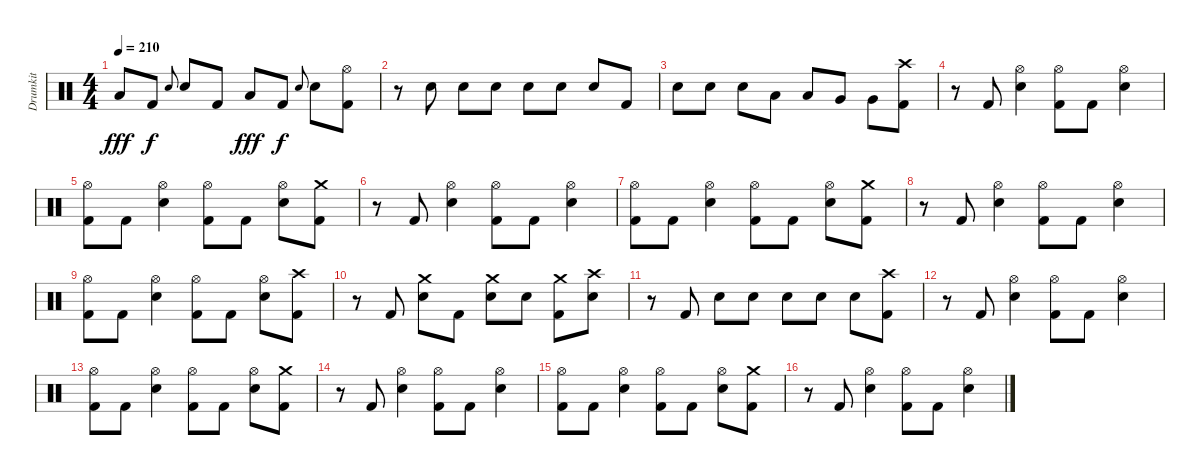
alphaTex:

\track ("Drumkit" "Drumkit") {instrument percussion}
\staff {score}
\articulation defaults
\ts (4 4)
\tempo 210
\clef neutral
\ks c "Low Floor Tom (hit)".8{dy fff} "Kick (hit) 2".8{dy f} "Electric Snare (hit)".8{gr onbeat} "Electric Snare (hit)".8 "Kick (hit) 2".8 "Low Floor Tom (hit)".8{dy fff} "Kick (hit) 2".8{dy f} "Electric Snare (hit)".8{gr onbeat} "Electric Snare (hit)".8
("Hi-Hat (open)" "Kick (hit) 2").8 |
r.8 "Electric Snare (hit)".8 "Electric Snare (hit)".8 "Electric Snare (hit)".8 "Electric Snare (hit)".8 "Electric Snare (hit)".8 "Electric Snare (hit)".8 "Kick (hit) 2".8 |
"Electric Snare (hit)".8 "Electric Snare (hit)".8 "Electric Snare (hit)".8 "Low Tom (hit)".8 "Low Tom (hit)".8 "Very Low Tom (hit)".8 "Very Low Tom (hit)".8 ("Crash high (hit)" "Kick (hit) 2").8 |
r.8 "Kick (hit) 2".8 ("Hi-Hat (open)" "Electric Snare (hit)").4 ("Hi-Hat (open)" "Kick (hit) 2").8 "Kick (hit) 2".8 ("Hi-Hat (open)" "Electric Snare (hit)").4 |
("Hi-Hat (open)" "Kick (hit) 2").8 "Kick (hit) 2".8 ("Hi-Hat (open)" "Electric Snare (hit)").4 ("Hi-Hat (open)" "Kick (hit) 2").8 "Kick (hit) 2".8 ("Hi-Hat (open)" "Electric Snare (hit)").8 ("Crash medium (hit)" "Kick (hit) 2").8 |
r.8 "Kick (hit) 2".8 ("Hi-Hat (open)" "Electric Snare (hit)").4 ("Hi-Hat (open)" "Kick (hit) 2").8 "Kick (hit) 2".8 ("Hi-Hat (open)" "Electric Snare (hit)").4 |
("Hi-Hat (open)" "Kick (hit) 2").8 "Kick (hit) 2".8 ("Hi-Hat (open)" "Electric Snare (hit)").4 ("Hi-Hat (open)" "Kick (hit) 2").8 "Kick (hit) 2".8 ("Hi-Hat (open)" "Electric Snare (hit)").8 ("Crash medium (hit)" "Kick (hit) 2").8 |
r.8 "Kick (hit) 2".8 ("Hi-Hat (open)" "Electric Snare (hit)").4 ("Hi-Hat (open)" "Kick (hit) 2").8 "Kick (hit) 2".8 ("Hi-Hat (open)" "Electric Snare (hit)").4 |
("Hi-Hat (open)" "Kick (hit) 2").8 "Kick (hit) 2".8 ("Hi-Hat (open)" "Electric Snare (hit)").4 ("Hi-Hat (open)" "Kick (hit) 2").8 "Kick (hit) 2".8 ("Hi-Hat (open)" "Electric Snare (hit)").8 ("Crash high (hit)" "Kick (hit) 2").8 |
r.8 "Kick (hit) 2".8 ("Crash medium (hit)" "Electric Snare (hit)").8 "Kick (hit) 2".8 ("Crash medium (hit)" "Electric Snare (hit)").8 "Electric Snare (hit)".8 ("Crash medium (hit)" "Kick (hit) 2").8 ("Crash high (hit)" "Electric Snare (hit)").8 |
r.8 "Kick (hit) 2".8 "Electric Snare (hit)".8 "Electric Snare (hit)".8 "Electric Snare (hit)".8 "Electric Snare (hit)".8 "Electric Snare (hit)".8 ("Crash high (hit)" "Kick (hit) 2").8 |
r.8 "Kick (hit) 2".8 ("Hi-Hat (open)" "Electric Snare (hit)").4 ("Hi-Hat (open)" "Kick (hit) 2").8 "Kick (hit) 2".8 ("Hi-Hat (open)" "Electric Snare (hit)").4 |
("Hi-Hat (open)" "Kick (hit) 2").8 "Kick (hit) 2".8 ("Hi-Hat (open)" "Electric Snare (hit)").4 ("Hi-Hat (open)" "Kick (hit) 2").8 "Kick (hit) 2".8 ("Hi-Hat (open)" "Electric Snare (hit)").8 ("Crash medium (hit)" "Kick (hit) 2").8 |
r.8 "Kick (hit) 2".8 ("Hi-Hat (open)" "Electric Snare (hit)").4 ("Hi-Hat (open)" "Kick (hit) 2").8 "Kick (hit) 2".8 ("Hi-Hat (open)" "Electric Snare (hit)").4 |
("Hi-Hat (open)" "Kick (hit) 2").8 "Kick (hit) 2".8 ("Hi-Hat (open)" "Electric Snare (hit)").4 ("Hi-Hat (open)" "Kick (hit) 2").8 "Kick (hit) 2".8 ("Hi-Hat (open)" "Electric Snare (hit)").8 ("Crash medium (hit)" "Kick (hit) 2").8 |
r.8 "Kick (hit) 2".8 ("Hi-Hat (open)" "Electric Snare (hit)").4 ("Hi-Hat (open)" "Kick (hit) 2").8 "Kick (hit) 2".8 ("Hi-Hat (open)" "Electric Snare (hit)").4
